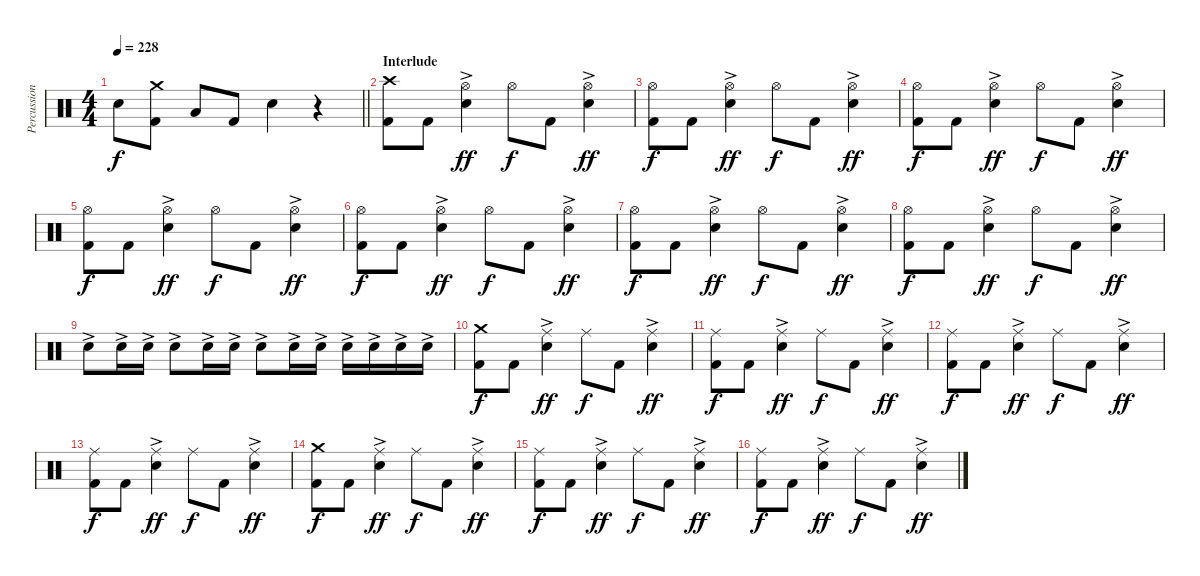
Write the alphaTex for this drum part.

\track ("Percussion" "Percussion") {instrument percussion}
\staff {score}
\articulation defaults
\ts (4 4)
\tempo 228
\clef neutral
\barLineRight lightlight
\ks c "Electric Snare (hit)".8{dy f}
("Crash medium (hit)" "Kick (hit) 2").8 "Low Tom (hit)".8 "Kick (hit) 2".8 "Electric Snare (hit)".4 r.4 |
\section ("" "Interlude")
("Crash high (hit)" "Kick (hit) 2").8 "Kick (hit) 2".8 ("Hi-Hat (open)" "Electric Snare (hit)"{ac}).4{dy ff} "Hi-Hat (open)".8{dy f} "Kick (hit) 2".8 ("Hi-Hat (open)" "Electric Snare (hit)"{ac}).4{dy ff} |
("Hi-Hat (open)" "Kick (hit) 2").8{dy f} "Kick (hit) 2".8 ("Hi-Hat (open)" "Electric Snare (hit)"{ac}).4{dy ff} "Hi-Hat (open)".8{dy f} "Kick (hit) 2".8 ("Hi-Hat (open)" "Electric Snare (hit)"{ac}).4{dy ff} |
("Hi-Hat (open)" "Kick (hit) 2").8{dy f} "Kick (hit) 2".8 ("Hi-Hat (open)" "Electric Snare (hit)"{ac}).4{dy ff} "Hi-Hat (open)".8{dy f} "Kick (hit) 2".8 ("Hi-Hat (open)" "Electric Snare (hit)"{ac}).4{dy ff} |
("Hi-Hat (open)" "Kick (hit) 2").8{dy f} "Kick (hit) 2".8 ("Hi-Hat (open)" "Electric Snare (hit)"{ac}).4{dy ff} "Hi-Hat (open)".8{dy f} "Kick (hit) 2".8 ("Hi-Hat (open)" "Electric Snare (hit)"{ac}).4{dy ff} |
("Hi-Hat (open)" "Kick (hit) 2").8{dy f} "Kick (hit) 2".8 ("Hi-Hat (open)" "Electric Snare (hit)"{ac}).4{dy ff} "Hi-Hat (open)".8{dy f} "Kick (hit) 2".8 ("Hi-Hat (open)" "Electric Snare (hit)"{ac}).4{dy ff} |
("Hi-Hat (open)" "Kick (hit) 2").8{dy f} "Kick (hit) 2".8 ("Hi-Hat (open)" "Electric Snare (hit)"{ac}).4{dy ff} "Hi-Hat (open)".8{dy f} "Kick (hit) 2".8 ("Hi-Hat (open)" "Electric Snare (hit)"{ac}).4{dy ff} |
("Hi-Hat (open)" "Kick (hit) 2").8{dy f} "Kick (hit) 2".8 ("Hi-Hat (open)" "Electric Snare (hit)"{ac}).4{dy ff} "Hi-Hat (open)".8{dy f} "Kick (hit) 2".8 ("Hi-Hat (open)" "Electric Snare (hit)"{ac}).4{dy ff} |
"Electric Snare (hit)"{ac}.8 "Electric Snare (hit)"{ac}.16 "Electric Snare (hit)"{ac}.16 "Electric Snare (hit)"{ac}.8 "Electric Snare (hit)"{ac}.16 "Electric Snare (hit)"{ac}.16 "Electric Snare (hit)"{ac}.8 "Electric Snare (hit)"{ac}.16 "Electric Snare (hit)"{ac}.16 "Electric Snare (hit)"{ac}.16 "Electric Snare (hit)"{ac}.16 "Electric Snare (hit)"{ac}.16 "Electric Snare (hit)"{ac}.16 |
("Crash medium (hit)" "Kick (hit) 2").8{dy f} "Kick (hit) 2".8 ("Ride (middle)" "Electric Snare (hit)"{ac}).4{dy ff} "Ride (middle)".8{dy f} "Kick (hit) 2".8 ("Ride (middle)" "Electric Snare (hit)"{ac}).4{dy ff} |
("Ride (middle)" "Kick (hit) 2").8{dy f} "Kick (hit) 2".8 ("Ride (middle)" "Electric Snare (hit)"{ac}).4{dy ff} "Ride (middle)".8{dy f} "Kick (hit) 2".8 ("Ride (middle)" "Electric Snare (hit)"{ac}).4{dy ff} |
("Ride (middle)" "Kick (hit) 2").8{dy f} "Kick (hit) 2".8 ("Ride (middle)" "Electric Snare (hit)"{ac}).4{dy ff} "Ride (middle)".8{dy f} "Kick (hit) 2".8 ("Ride (middle)" "Electric Snare (hit)"{ac}).4{dy ff} |
("Ride (middle)" "Kick (hit) 2").8{dy f} "Kick (hit) 2".8 ("Ride (middle)" "Electric Snare (hit)"{ac}).4{dy ff} "Ride (middle)".8{dy f} "Kick (hit) 2".8 ("Ride (middle)" "Electric Snare (hit)"{ac}).4{dy ff} |
("Crash medium (hit)" "Kick (hit) 2").8{dy f} "Kick (hit) 2".8 ("Ride (middle)" "Electric Snare (hit)"{ac}).4{dy ff} "Ride (middle)".8{dy f} "Kick (hit) 2".8 ("Ride (middle)" "Electric Snare (hit)"{ac}).4{dy ff} |
("Ride (middle)" "Kick (hit) 2").8{dy f} "Kick (hit) 2".8 ("Ride (middle)" "Electric Snare (hit)"{ac}).4{dy ff} "Ride (middle)".8{dy f} "Kick (hit) 2".8 ("Ride (middle)" "Electric Snare (hit)"{ac}).4{dy ff} |
("Ride (middle)" "Kick (hit) 2").8{dy f} "Kick (hit) 2".8 ("Ride (middle)" "Electric Snare (hit)"{ac}).4{dy ff} "Ride (middle)".8{dy f} "Kick (hit) 2".8 ("Ride (middle)" "Electric Snare (hit)"{ac}).4{dy ff}
